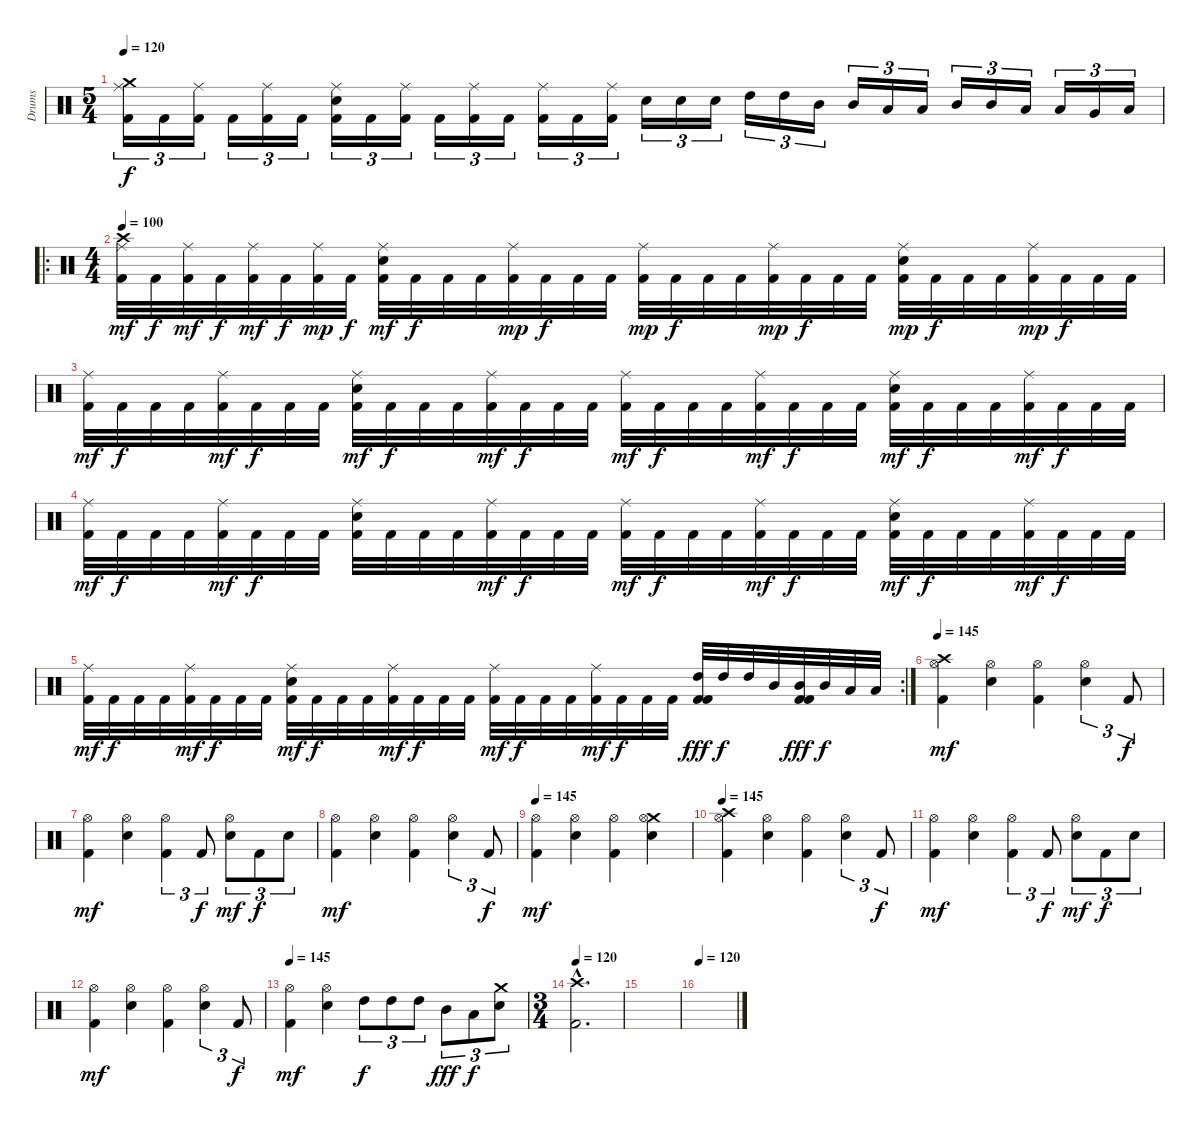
\track ("Drums" "Drums") {instrument percussion}
\staff {score}
\articulation defaults
\ts (5 4)
\tempo 120
\clef neutral
\ks c
("Crash medium (hit)" "Ride (middle)" "Kick (hit) 2").16{tu (3 2) dy f} "Kick (hit) 2".16{tu (3 2)} ("Ride (middle)" "Kick (hit) 2").16{tu (3 2)} "Kick (hit) 2".16{tu (3 2)} ("Ride (middle)" "Kick (hit) 2").16{tu (3 2)} "Kick (hit) 2".16{tu (3 2)} ("Ride (middle)" "Snare (hit) 2" "Kick (hit) 2").16{tu (3 2)} "Kick (hit) 2".16{tu (3 2)} ("Ride (middle)" "Kick (hit) 2").16{tu (3 2)} "Kick (hit) 2".16{tu (3 2)} ("Ride (middle)" "Kick (hit) 2").16{tu (3 2)} "Kick (hit) 2".16{tu (3 2)} ("Ride (middle)" "Kick (hit) 2").16{tu (3 2)} "Kick (hit) 2".16{tu (3 2)} ("Ride (middle)" "Kick (hit) 2").16{tu (3 2)} "Snare (hit) 2".16{tu (3 2)} "Snare (hit) 2".16{tu (3 2)} "Snare (hit) 2".16{tu (3 2)} "High Tom (hit)".16{tu (3 2)} "High Tom (hit)".16{tu (3 2)} "Mid Tom (hit)".16{tu (3 2)} "Mid Tom (hit)".16{tu (3 2)} "Low Tom (hit)".16{tu (3 2)} "Low Tom (hit)".16{tu (3 2)} "Mid Tom (hit)".16{tu (3 2)} "Mid Tom (hit)".16{tu (3 2)} "Low Tom (hit)".16{tu (3 2)} "Low Tom (hit)".16{tu (3 2)} "Very Low Tom (hit)".16{tu (3 2)} "Low Floor Tom (hit)".16{tu (3 2)} |
\ro
\ts (4 4)
\tempo 100
("Crash high (hit)" "Ride (middle)" "Kick (hit) 2").32{dy mf} "Kick (hit) 2".32{dy f} ("Ride (middle)" "Kick (hit) 2").32{dy mf} "Kick (hit) 2".32{dy f} ("Ride (middle)" "Kick (hit) 2").32{dy mf} "Kick (hit) 2".32{dy f} ("Ride (middle)" "Kick (hit) 2").32{dy mp} "Kick (hit) 2".32{dy f} ("Ride (middle)" "Snare (hit) 2" "Kick (hit) 2").32{dy mf} "Kick (hit) 2".32{dy f} "Kick (hit) 2".32 "Kick (hit) 2".32 ("Ride (middle)" "Kick (hit) 2").32{dy mp} "Kick (hit) 2".32{dy f} "Kick (hit) 2".32 "Kick (hit) 2".32 ("Ride (middle)" "Kick (hit) 2").32{dy mp} "Kick (hit) 2".32{dy f} "Kick (hit) 2".32 "Kick (hit) 2".32 ("Ride (middle)" "Kick (hit) 2").32{dy mp} "Kick (hit) 2".32{dy f} "Kick (hit) 2".32 "Kick (hit) 2".32 ("Ride (middle)" "Snare (hit) 2" "Kick (hit) 2").32{dy mp} "Kick (hit) 2".32{dy f} "Kick (hit) 2".32 "Kick (hit) 2".32 ("Ride (middle)" "Kick (hit) 2").32{dy mp} "Kick (hit) 2".32{dy f} "Kick (hit) 2".32 "Kick (hit) 2".32 |
("Ride (middle)" "Kick (hit) 2").32{dy mf} "Kick (hit) 2".32{dy f} "Kick (hit) 2".32 "Kick (hit) 2".32 ("Ride (middle)" "Kick (hit) 2").32{dy mf} "Kick (hit) 2".32{dy f} "Kick (hit) 2".32 "Kick (hit) 2".32 ("Ride (middle)" "Snare (hit) 2" "Kick (hit) 2").32{dy mf} "Kick (hit) 2".32{dy f} "Kick (hit) 2".32 "Kick (hit) 2".32 ("Ride (middle)" "Kick (hit) 2").32{dy mf} "Kick (hit) 2".32{dy f} "Kick (hit) 2".32 "Kick (hit) 2".32 ("Ride (middle)" "Kick (hit) 2").32{dy mf} "Kick (hit) 2".32{dy f} "Kick (hit) 2".32 "Kick (hit) 2".32 ("Ride (middle)" "Kick (hit) 2").32{dy mf} "Kick (hit) 2".32{dy f} "Kick (hit) 2".32 "Kick (hit) 2".32 ("Ride (middle)" "Snare (hit) 2" "Kick (hit) 2").32{dy mf} "Kick (hit) 2".32{dy f} "Kick (hit) 2".32 "Kick (hit) 2".32 ("Ride (middle)" "Kick (hit) 2").32{dy mf} "Kick (hit) 2".32{dy f} "Kick (hit) 2".32 "Kick (hit) 2".32 |
("Ride (middle)" "Kick (hit) 2").32{dy mf} "Kick (hit) 2".32{dy f} "Kick (hit) 2".32 "Kick (hit) 2".32 ("Ride (middle)" "Kick (hit) 2").32{dy mf} "Kick (hit) 2".32{dy f} "Kick (hit) 2".32 "Kick (hit) 2".32 ("Ride (middle)" "Snare (hit) 2" "Kick (hit) 2").32 "Kick (hit) 2".32 "Kick (hit) 2".32 "Kick (hit) 2".32 ("Ride (middle)" "Kick (hit) 2").32{dy mf} "Kick (hit) 2".32{dy f} "Kick (hit) 2".32 "Kick (hit) 2".32 ("Ride (middle)" "Kick (hit) 2").32{dy mf} "Kick (hit) 2".32{dy f} "Kick (hit) 2".32 "Kick (hit) 2".32 ("Ride (middle)" "Kick (hit) 2").32{dy mf} "Kick (hit) 2".32{dy f} "Kick (hit) 2".32 "Kick (hit) 2".32 ("Ride (middle)" "Snare (hit) 2" "Kick (hit) 2").32{dy mf} "Kick (hit) 2".32{dy f} "Kick (hit) 2".32 "Kick (hit) 2".32 ("Ride (middle)" "Kick (hit) 2").32{dy mf} "Kick (hit) 2".32{dy f} "Kick (hit) 2".32 "Kick (hit) 2".32 |
\rc 2
("Ride (middle)" "Kick (hit) 2").32{dy mf} "Kick (hit) 2".32{dy f} "Kick (hit) 2".32 "Kick (hit) 2".32 ("Ride (middle)" "Kick (hit) 2").32{dy mf} "Kick (hit) 2".32{dy f} "Kick (hit) 2".32 "Kick (hit) 2".32 ("Ride (middle)" "Snare (hit) 2" "Kick (hit) 2").32{dy mf} "Kick (hit) 2".32{dy f} "Kick (hit) 2".32 "Kick (hit) 2".32 ("Ride (middle)" "Kick (hit) 2").32{dy mf} "Kick (hit) 2".32{dy f} "Kick (hit) 2".32 "Kick (hit) 2".32 ("Ride (middle)" "Kick (hit) 2").32{dy mf} "Kick (hit) 2".32{dy f} "Kick (hit) 2".32 "Kick (hit) 2".32 ("Ride (middle)" "Kick (hit) 2").32{dy mf} "Kick (hit) 2".32{dy f} "Kick (hit) 2".32 "Kick (hit) 2".32 ("High Tom (hit)" "Kick (hit) 2" "Kick (hit) 2").32{dy fff} "High Tom (hit)".32{dy f} "High Tom (hit)".32 "Mid Tom (hit)".32 ("Mid Tom (hit)" "Kick (hit) 2" "Kick (hit) 2").32{dy fff} "Mid Tom (hit)".32{dy f} "Low Tom (hit)".32 "Low Tom (hit)".32 |
\tempo 145
("Crash high (hit)" "Hi-Hat (open)" "Kick (hit) 2").4{dy mf} ("Hi-Hat (open)" "Electric Snare (hit)").4 ("Hi-Hat (open)" "Kick (hit) 2").4 ("Hi-Hat (open)" "Electric Snare (hit)").4{tu (3 2)} "Kick (hit) 2".8{tu (3 2) dy f} |
("Hi-Hat (open)" "Kick (hit) 2").4{dy mf} ("Hi-Hat (open)" "Electric Snare (hit)").4 ("Hi-Hat (open)" "Kick (hit) 2").4{tu (3 2)} "Kick (hit) 2".8{tu (3 2) dy f} ("Hi-Hat (open)" "Electric Snare (hit)").8{tu (3 2) dy mf} "Kick (hit) 2".8{tu (3 2) dy f} "Electric Snare (hit)".8{tu (3 2)} |
("Hi-Hat (open)" "Kick (hit) 2").4{dy mf} ("Hi-Hat (open)" "Electric Snare (hit)").4 ("Hi-Hat (open)" "Kick (hit) 2").4 ("Hi-Hat (open)" "Electric Snare (hit)").4{tu (3 2)} "Kick (hit) 2".8{tu (3 2) dy f} |
\tempo 145
("Hi-Hat (open)" "Kick (hit) 2").4{dy mf} ("Hi-Hat (open)" "Electric Snare (hit)").4 ("Hi-Hat (open)" "Kick (hit) 2").4 ("Crash medium (hit)" "Hi-Hat (open)" "Electric Snare (hit)").4 |
\tempo 145
("Crash high (hit)" "Hi-Hat (open)" "Kick (hit) 2").4 ("Hi-Hat (open)" "Electric Snare (hit)").4 ("Hi-Hat (open)" "Kick (hit) 2").4 ("Hi-Hat (open)" "Electric Snare (hit)").4{tu (3 2)} "Kick (hit) 2".8{tu (3 2) dy f} |
("Hi-Hat (open)" "Kick (hit) 2").4{dy mf} ("Hi-Hat (open)" "Electric Snare (hit)").4 ("Hi-Hat (open)" "Kick (hit) 2").4{tu (3 2)} "Kick (hit) 2".8{tu (3 2) dy f} ("Hi-Hat (open)" "Electric Snare (hit)").8{tu (3 2) dy mf} "Kick (hit) 2".8{tu (3 2) dy f} "Electric Snare (hit)".8{tu (3 2)} |
("Hi-Hat (open)" "Kick (hit) 2").4{dy mf} ("Hi-Hat (open)" "Electric Snare (hit)").4 ("Hi-Hat (open)" "Kick (hit) 2").4 ("Hi-Hat (open)" "Electric Snare (hit)").4{tu (3 2)} "Kick (hit) 2".8{tu (3 2) dy f} |
\tempo 145
("Hi-Hat (open)" "Kick (hit) 2").4{dy mf} ("Hi-Hat (open)" "Electric Snare (hit)").4 "High Tom (hit)".8{tu (3 2) dy f} "High Tom (hit)".8{tu (3 2)} "High Tom (hit)".8{tu (3 2)} "Mid Tom (hit)".8{tu (3 2) dy fff} "Low Tom (hit)".8{tu (3 2) dy f} ("Crash medium (hit)" "Electric Snare (hit)").8{tu (3 2)} |
\ts (3 4)
\tempo 120
("Crash high (hit)"{hac} "Kick (hit) 2"{hac}).2{d} |
|
\tempo 120
